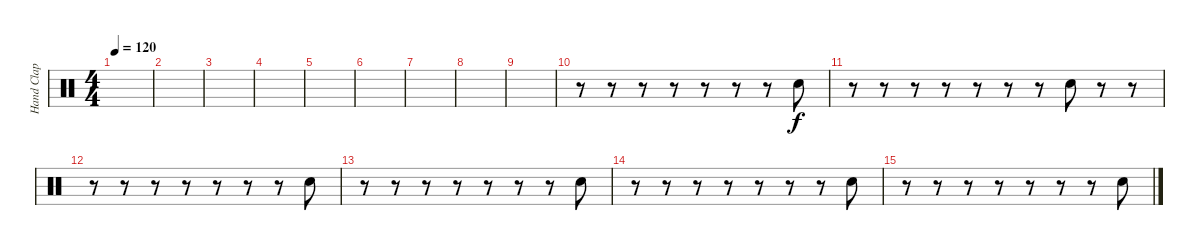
\track ("Hand Clap" "Hand Clap") {instrument percussion}
\staff {score}
\articulation defaults
\ts (4 4)
\tempo 120
\clef neutral
\ks c
|
|
|
|
|
|
|
|
|
r.8 r.8 r.8 r.8 r.8 r.8 r.8 "Hand Clap (hit)".8 |
r.8 r.8 r.8 r.8 r.8 r.8 r.8 "Hand Clap (hit)".8 r.8 r.8 |
r.8 r.8 r.8 r.8 r.8 r.8 r.8 "Hand Clap (hit)".8 |
r.8 r.8 r.8 r.8 r.8 r.8 r.8 "Hand Clap (hit)".8 |
r.8 r.8 r.8 r.8 r.8 r.8 r.8 "Hand Clap (hit)".8 |
r.8 r.8 r.8 r.8 r.8 r.8 r.8 "Hand Clap (hit)".8
